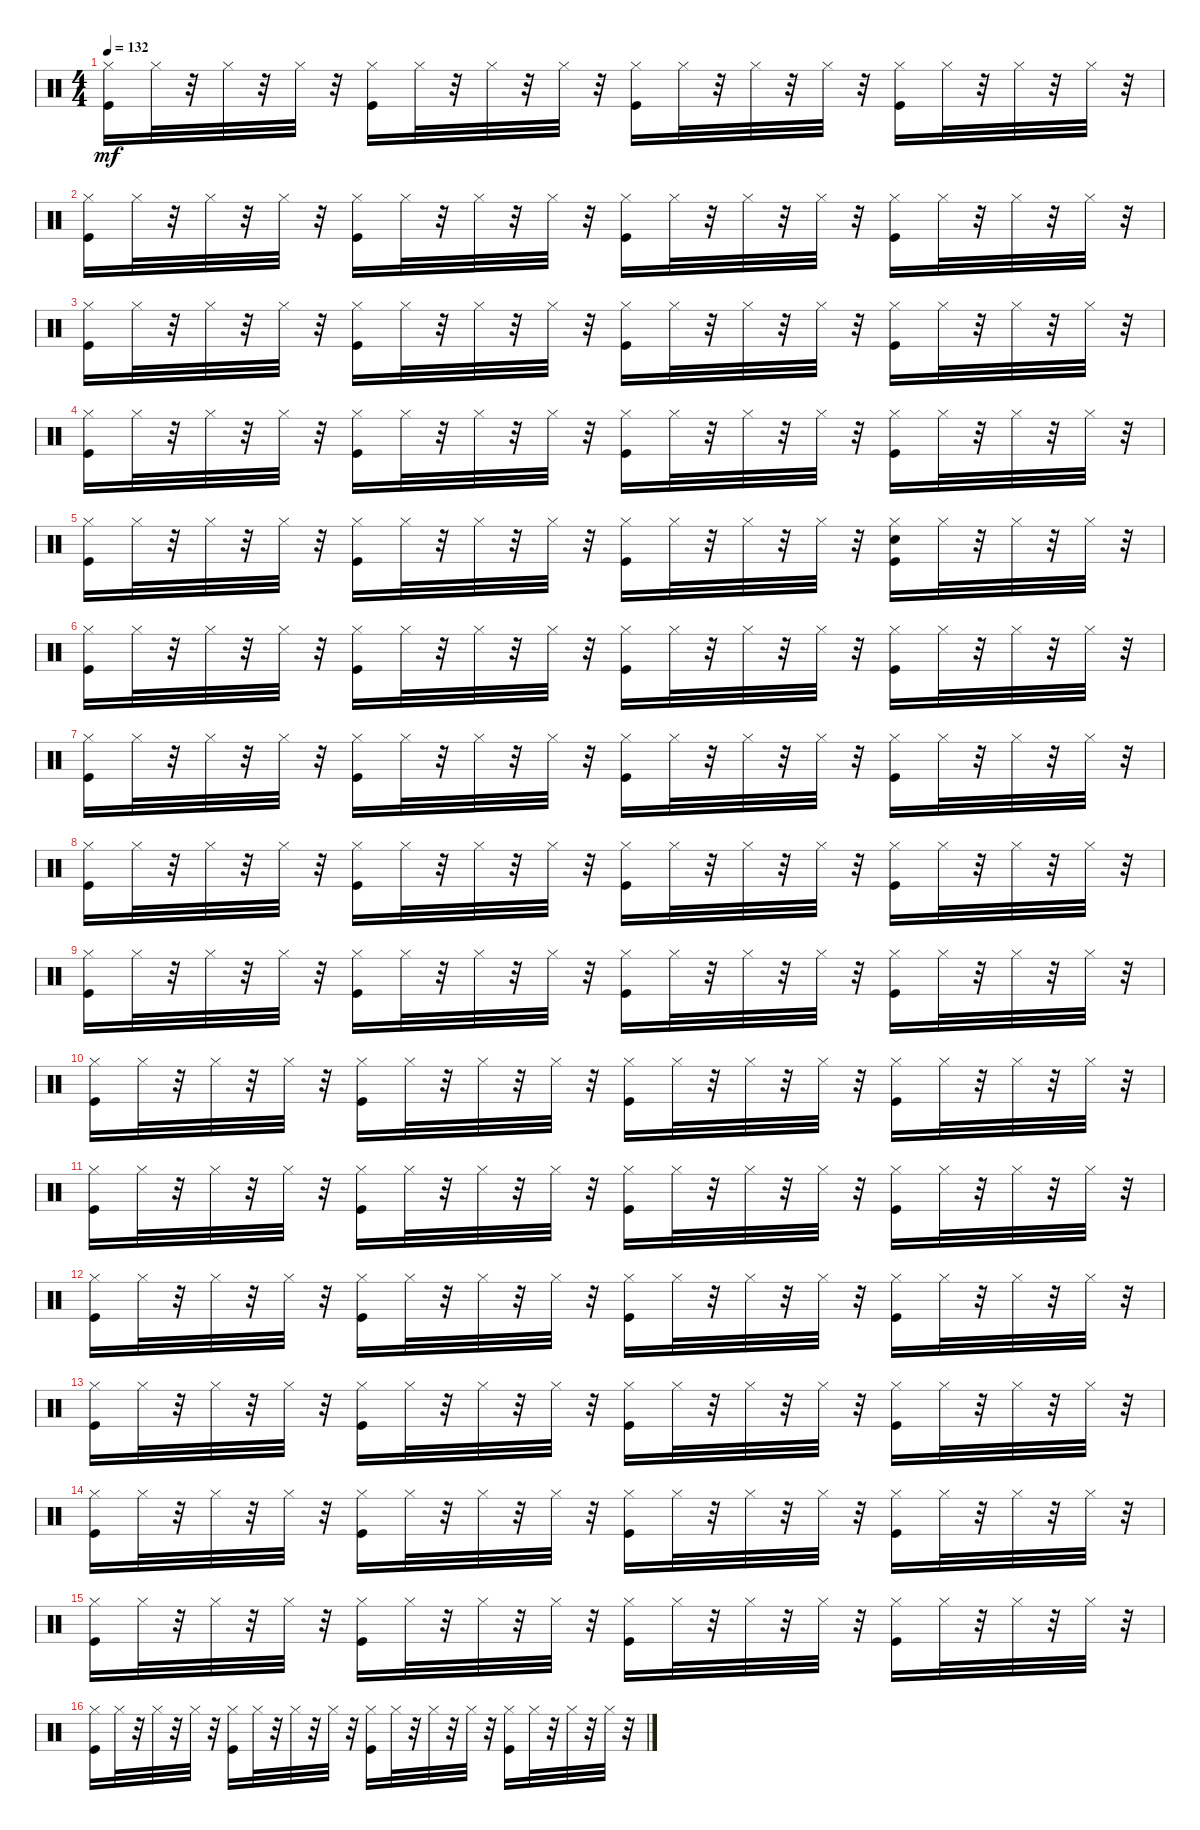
\track "" {instrument percussion}
\staff {score}
\articulation defaults
\ts (4 4)
\tempo 132
\clef neutral
\ks c
("Hi-Hat (closed)" "Kick (hit)").16{dy mf} "Hi-Hat (closed)".32 r.32 "Hi-Hat (closed)".32 r.32 "Hi-Hat (closed)".32 r.32 ("Hi-Hat (closed)" "Kick (hit)").16 "Hi-Hat (closed)".32 r.32 "Hi-Hat (closed)".32 r.32 "Hi-Hat (closed)".32 r.32 ("Hi-Hat (closed)" "Kick (hit)").16 "Hi-Hat (closed)".32 r.32 "Hi-Hat (closed)".32 r.32 "Hi-Hat (closed)".32 r.32 ("Hi-Hat (closed)" "Kick (hit)").16 "Hi-Hat (closed)".32 r.32 "Hi-Hat (closed)".32 r.32 "Hi-Hat (closed)".32 r.32 |
("Hi-Hat (closed)" "Kick (hit)").16 "Hi-Hat (closed)".32 r.32 "Hi-Hat (closed)".32 r.32 "Hi-Hat (closed)".32 r.32 ("Hi-Hat (closed)" "Kick (hit)").16 "Hi-Hat (closed)".32 r.32 "Hi-Hat (closed)".32 r.32 "Hi-Hat (closed)".32 r.32 ("Hi-Hat (closed)" "Kick (hit)").16 "Hi-Hat (closed)".32 r.32 "Hi-Hat (closed)".32 r.32 "Hi-Hat (closed)".32 r.32 ("Hi-Hat (closed)" "Kick (hit)").16 "Hi-Hat (closed)".32 r.32 "Hi-Hat (closed)".32 r.32 "Hi-Hat (closed)".32 r.32 |
("Hi-Hat (closed)" "Kick (hit)").16 "Hi-Hat (closed)".32 r.32 "Hi-Hat (closed)".32 r.32 "Hi-Hat (closed)".32 r.32 ("Hi-Hat (closed)" "Kick (hit)").16 "Hi-Hat (closed)".32 r.32 "Hi-Hat (closed)".32 r.32 "Hi-Hat (closed)".32 r.32 ("Hi-Hat (closed)" "Kick (hit)").16 "Hi-Hat (closed)".32 r.32 "Hi-Hat (closed)".32 r.32 "Hi-Hat (closed)".32 r.32 ("Hi-Hat (closed)" "Kick (hit)").16 "Hi-Hat (closed)".32 r.32 "Hi-Hat (closed)".32 r.32 "Hi-Hat (closed)".32 r.32 |
("Hi-Hat (closed)" "Kick (hit)").16 "Hi-Hat (closed)".32 r.32 "Hi-Hat (closed)".32 r.32 "Hi-Hat (closed)".32 r.32 ("Hi-Hat (closed)" "Kick (hit)").16 "Hi-Hat (closed)".32 r.32 "Hi-Hat (closed)".32 r.32 "Hi-Hat (closed)".32 r.32 ("Hi-Hat (closed)" "Kick (hit)").16 "Hi-Hat (closed)".32 r.32 "Hi-Hat (closed)".32 r.32 "Hi-Hat (closed)".32 r.32 ("Hi-Hat (closed)" "Kick (hit)").16 "Hi-Hat (closed)".32 r.32 "Hi-Hat (closed)".32 r.32 "Hi-Hat (closed)".32 r.32 |
("Hi-Hat (closed)" "Kick (hit)").16 "Hi-Hat (closed)".32 r.32 "Hi-Hat (closed)".32 r.32 "Hi-Hat (closed)".32 r.32 ("Hi-Hat (closed)" "Kick (hit)").16 "Hi-Hat (closed)".32 r.32 "Hi-Hat (closed)".32 r.32 "Hi-Hat (closed)".32 r.32 ("Hi-Hat (closed)" "Kick (hit)").16 "Hi-Hat (closed)".32 r.32 "Hi-Hat (closed)".32 r.32 "Hi-Hat (closed)".32 r.32 ("Hi-Hat (closed)" "Kick (hit)" "Metronome (bell)").16 "Hi-Hat (closed)".32 r.32 "Hi-Hat (closed)".32 r.32 "Hi-Hat (closed)".32 r.32 |
("Hi-Hat (closed)" "Kick (hit)").16 "Hi-Hat (closed)".32 r.32 "Hi-Hat (closed)".32 r.32 "Hi-Hat (closed)".32 r.32 ("Hi-Hat (closed)" "Kick (hit)").16 "Hi-Hat (closed)".32 r.32 "Hi-Hat (closed)".32 r.32 "Hi-Hat (closed)".32 r.32 ("Hi-Hat (closed)" "Kick (hit)").16 "Hi-Hat (closed)".32 r.32 "Hi-Hat (closed)".32 r.32 "Hi-Hat (closed)".32 r.32 ("Hi-Hat (closed)" "Kick (hit)").16 "Hi-Hat (closed)".32 r.32 "Hi-Hat (closed)".32 r.32 "Hi-Hat (closed)".32 r.32 |
("Hi-Hat (closed)" "Kick (hit)").16 "Hi-Hat (closed)".32 r.32 "Hi-Hat (closed)".32 r.32 "Hi-Hat (closed)".32 r.32 ("Hi-Hat (closed)" "Kick (hit)").16 "Hi-Hat (closed)".32 r.32 "Hi-Hat (closed)".32 r.32 "Hi-Hat (closed)".32 r.32 ("Hi-Hat (closed)" "Kick (hit)").16 "Hi-Hat (closed)".32 r.32 "Hi-Hat (closed)".32 r.32 "Hi-Hat (closed)".32 r.32 ("Hi-Hat (closed)" "Kick (hit)").16 "Hi-Hat (closed)".32 r.32 "Hi-Hat (closed)".32 r.32 "Hi-Hat (closed)".32 r.32 |
("Hi-Hat (closed)" "Kick (hit)").16 "Hi-Hat (closed)".32 r.32 "Hi-Hat (closed)".32 r.32 "Hi-Hat (closed)".32 r.32 ("Hi-Hat (closed)" "Kick (hit)").16 "Hi-Hat (closed)".32 r.32 "Hi-Hat (closed)".32 r.32 "Hi-Hat (closed)".32 r.32 ("Hi-Hat (closed)" "Kick (hit)").16 "Hi-Hat (closed)".32 r.32 "Hi-Hat (closed)".32 r.32 "Hi-Hat (closed)".32 r.32 ("Hi-Hat (closed)" "Kick (hit)").16 "Hi-Hat (closed)".32 r.32 "Hi-Hat (closed)".32 r.32 "Hi-Hat (closed)".32 r.32 |
("Hi-Hat (closed)" "Kick (hit)").16 "Hi-Hat (closed)".32 r.32 "Hi-Hat (closed)".32 r.32 "Hi-Hat (closed)".32 r.32 ("Hi-Hat (closed)" "Kick (hit)").16 "Hi-Hat (closed)".32 r.32 "Hi-Hat (closed)".32 r.32 "Hi-Hat (closed)".32 r.32 ("Hi-Hat (closed)" "Kick (hit)").16 "Hi-Hat (closed)".32 r.32 "Hi-Hat (closed)".32 r.32 "Hi-Hat (closed)".32 r.32 ("Hi-Hat (closed)" "Kick (hit)").16 "Hi-Hat (closed)".32 r.32 "Hi-Hat (closed)".32 r.32 "Hi-Hat (closed)".32 r.32 |
("Hi-Hat (closed)" "Kick (hit)").16 "Hi-Hat (closed)".32 r.32 "Hi-Hat (closed)".32 r.32 "Hi-Hat (closed)".32 r.32 ("Hi-Hat (closed)" "Kick (hit)").16 "Hi-Hat (closed)".32 r.32 "Hi-Hat (closed)".32 r.32 "Hi-Hat (closed)".32 r.32 ("Hi-Hat (closed)" "Kick (hit)").16 "Hi-Hat (closed)".32 r.32 "Hi-Hat (closed)".32 r.32 "Hi-Hat (closed)".32 r.32 ("Hi-Hat (closed)" "Kick (hit)").16 "Hi-Hat (closed)".32 r.32 "Hi-Hat (closed)".32 r.32 "Hi-Hat (closed)".32 r.32 |
("Hi-Hat (closed)" "Kick (hit)").16 "Hi-Hat (closed)".32 r.32 "Hi-Hat (closed)".32 r.32 "Hi-Hat (closed)".32 r.32 ("Hi-Hat (closed)" "Kick (hit)").16 "Hi-Hat (closed)".32 r.32 "Hi-Hat (closed)".32 r.32 "Hi-Hat (closed)".32 r.32 ("Hi-Hat (closed)" "Kick (hit)").16 "Hi-Hat (closed)".32 r.32 "Hi-Hat (closed)".32 r.32 "Hi-Hat (closed)".32 r.32 ("Hi-Hat (closed)" "Kick (hit)").16 "Hi-Hat (closed)".32 r.32 "Hi-Hat (closed)".32 r.32 "Hi-Hat (closed)".32 r.32 |
("Hi-Hat (closed)" "Kick (hit)").16 "Hi-Hat (closed)".32 r.32 "Hi-Hat (closed)".32 r.32 "Hi-Hat (closed)".32 r.32 ("Hi-Hat (closed)" "Kick (hit)").16 "Hi-Hat (closed)".32 r.32 "Hi-Hat (closed)".32 r.32 "Hi-Hat (closed)".32 r.32 ("Hi-Hat (closed)" "Kick (hit)").16 "Hi-Hat (closed)".32 r.32 "Hi-Hat (closed)".32 r.32 "Hi-Hat (closed)".32 r.32 ("Hi-Hat (closed)" "Kick (hit)").16 "Hi-Hat (closed)".32 r.32 "Hi-Hat (closed)".32 r.32 "Hi-Hat (closed)".32 r.32 |
("Hi-Hat (closed)" "Kick (hit)").16 "Hi-Hat (closed)".32 r.32 "Hi-Hat (closed)".32 r.32 "Hi-Hat (closed)".32 r.32 ("Hi-Hat (closed)" "Kick (hit)").16 "Hi-Hat (closed)".32 r.32 "Hi-Hat (closed)".32 r.32 "Hi-Hat (closed)".32 r.32 ("Hi-Hat (closed)" "Kick (hit)").16 "Hi-Hat (closed)".32 r.32 "Hi-Hat (closed)".32 r.32 "Hi-Hat (closed)".32 r.32 ("Hi-Hat (closed)" "Kick (hit)").16 "Hi-Hat (closed)".32 r.32 "Hi-Hat (closed)".32 r.32 "Hi-Hat (closed)".32 r.32 |
("Hi-Hat (closed)" "Kick (hit)").16 "Hi-Hat (closed)".32 r.32 "Hi-Hat (closed)".32 r.32 "Hi-Hat (closed)".32 r.32 ("Hi-Hat (closed)" "Kick (hit)").16 "Hi-Hat (closed)".32 r.32 "Hi-Hat (closed)".32 r.32 "Hi-Hat (closed)".32 r.32 ("Hi-Hat (closed)" "Kick (hit)").16 "Hi-Hat (closed)".32 r.32 "Hi-Hat (closed)".32 r.32 "Hi-Hat (closed)".32 r.32 ("Hi-Hat (closed)" "Kick (hit)").16 "Hi-Hat (closed)".32 r.32 "Hi-Hat (closed)".32 r.32 "Hi-Hat (closed)".32 r.32 |
("Hi-Hat (closed)" "Kick (hit)").16 "Hi-Hat (closed)".32 r.32 "Hi-Hat (closed)".32 r.32 "Hi-Hat (closed)".32 r.32 ("Hi-Hat (closed)" "Kick (hit)").16 "Hi-Hat (closed)".32 r.32 "Hi-Hat (closed)".32 r.32 "Hi-Hat (closed)".32 r.32 ("Hi-Hat (closed)" "Kick (hit)").16 "Hi-Hat (closed)".32 r.32 "Hi-Hat (closed)".32 r.32 "Hi-Hat (closed)".32 r.32 ("Hi-Hat (closed)" "Kick (hit)").16 "Hi-Hat (closed)".32 r.32 "Hi-Hat (closed)".32 r.32 "Hi-Hat (closed)".32 r.32 |
("Hi-Hat (closed)" "Kick (hit)").16 "Hi-Hat (closed)".32 r.32 "Hi-Hat (closed)".32 r.32 "Hi-Hat (closed)".32 r.32 ("Hi-Hat (closed)" "Kick (hit)").16 "Hi-Hat (closed)".32 r.32 "Hi-Hat (closed)".32 r.32 "Hi-Hat (closed)".32 r.32 ("Hi-Hat (closed)" "Kick (hit)").16 "Hi-Hat (closed)".32 r.32 "Hi-Hat (closed)".32 r.32 "Hi-Hat (closed)".32 r.32 ("Hi-Hat (closed)" "Kick (hit)").16 "Hi-Hat (closed)".32 r.32 "Hi-Hat (closed)".32 r.32 "Hi-Hat (closed)".32 r.32
